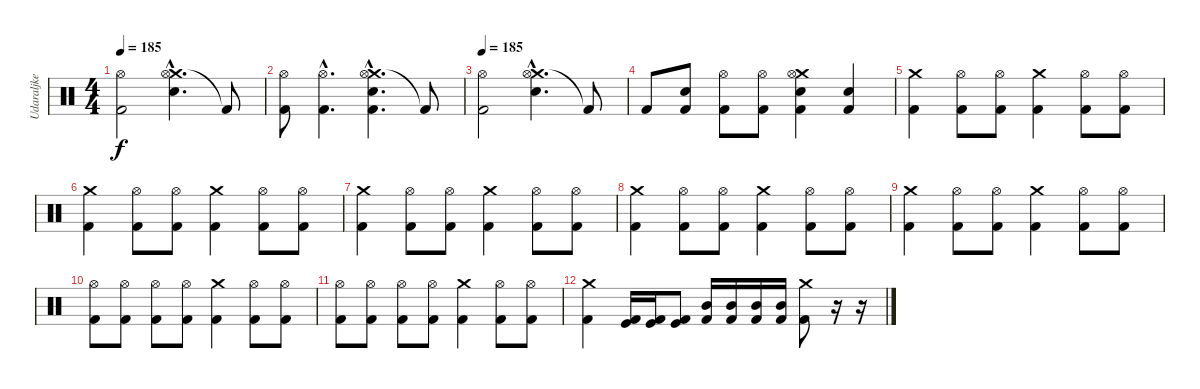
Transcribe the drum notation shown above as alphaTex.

\track ("Udaraljke" "Udaraljke") {instrument percussion}
\staff {score}
\articulation defaults
\ts (4 4)
\tempo 185
\clef neutral
\ks c
("Hi-Hat (open)" "Kick (hit) 2").2{dy f} ("Crash medium (hit)"{hac} "Electric Snare (hit)"{hac} "Hi-Hat (open)"{hac}).4{d} "Kick (hit) 2"{t}.8 |
("Hi-Hat (open)" "Kick (hit) 2").8 ("Hi-Hat (open)"{hac} "Kick (hit) 2"{hac}).4{d} ("Crash medium (hit)"{hac} "Electric Snare (hit)"{hac} "Kick (hit) 2"{hac} "Hi-Hat (open)"{hac}).4{d} "Kick (hit) 2"{t}.8 |
\tempo 185
("Hi-Hat (open)" "Kick (hit) 2").2 ("Crash medium (hit)"{hac} "Electric Snare (hit)"{hac} "Hi-Hat (open)"{hac}).4{d} "Kick (hit) 2"{t}.8 |
"Kick (hit) 2".8 ("Electric Snare (hit)" "Kick (hit) 2").8 ("Hi-Hat (open)" "Kick (hit) 2").8 ("Hi-Hat (open)" "Kick (hit) 2").8 ("Crash medium (hit)" "Electric Snare (hit)" "Kick (hit) 2" "Hi-Hat (open)").4 ("Electric Snare (hit)" "Kick (hit) 2").4 |
("Kick (hit) 2" "Crash medium (hit)").4 ("Kick (hit) 2" "Hi-Hat (open)").8 ("Kick (hit) 2" "Hi-Hat (open)").8 ("Kick (hit) 2" "Crash medium (hit)").4 ("Kick (hit) 2" "Hi-Hat (open)").8 ("Kick (hit) 2" "Hi-Hat (open)").8 |
("Kick (hit) 2" "Crash medium (hit)").4 ("Kick (hit) 2" "Hi-Hat (open)").8 ("Kick (hit) 2" "Hi-Hat (open)").8 ("Kick (hit) 2" "Crash medium (hit)").4 ("Kick (hit) 2" "Hi-Hat (open)").8 ("Kick (hit) 2" "Hi-Hat (open)").8 |
("Kick (hit) 2" "Crash medium (hit)").4 ("Kick (hit) 2" "Hi-Hat (open)").8 ("Kick (hit) 2" "Hi-Hat (open)").8 ("Kick (hit) 2" "Crash medium (hit)").4 ("Kick (hit) 2" "Hi-Hat (open)").8 ("Kick (hit) 2" "Hi-Hat (open)").8 |
("Kick (hit) 2" "Crash medium (hit)").4 ("Kick (hit) 2" "Hi-Hat (open)").8 ("Kick (hit) 2" "Hi-Hat (open)").8 ("Kick (hit) 2" "Crash medium (hit)").4 ("Kick (hit) 2" "Hi-Hat (open)").8 ("Kick (hit) 2" "Hi-Hat (open)").8 |
("Kick (hit) 2" "Crash medium (hit)").4 ("Kick (hit) 2" "Hi-Hat (open)").8 ("Kick (hit) 2" "Hi-Hat (open)").8 ("Kick (hit) 2" "Crash medium (hit)").4 ("Kick (hit) 2" "Hi-Hat (open)").8 ("Kick (hit) 2" "Hi-Hat (open)").8 |
("Kick (hit) 2" "Hi-Hat (open)").8 ("Kick (hit) 2" "Hi-Hat (open)").8 ("Kick (hit) 2" "Hi-Hat (open)").8 ("Kick (hit) 2" "Hi-Hat (open)").8 ("Kick (hit) 2" "Crash medium (hit)").4 ("Kick (hit) 2" "Hi-Hat (open)").8 ("Kick (hit) 2" "Hi-Hat (open)").8 |
("Kick (hit) 2" "Hi-Hat (open)").8 ("Kick (hit) 2" "Hi-Hat (open)").8 ("Kick (hit) 2" "Hi-Hat (open)").8 ("Kick (hit) 2" "Hi-Hat (open)").8 ("Kick (hit) 2" "Crash medium (hit)").4 ("Kick (hit) 2" "Hi-Hat (open)").8 ("Kick (hit) 2" "Hi-Hat (open)").8 |
("Kick (hit) 2" "Crash medium (hit)").4 ("Kick (hit) 2" "Kick (hit)").16 ("Kick (hit) 2" "Kick (hit)").16 ("Kick (hit) 2" "Kick (hit)").8 ("Kick (hit) 2" "Mid Tom (hit)").16 ("Kick (hit) 2" "Mid Tom (hit)").16 ("Kick (hit) 2" "Mid Tom (hit)").16 ("Kick (hit) 2" "Mid Tom (hit)").16 ("Kick (hit) 2" "Crash medium (hit)").8 r.16 r.16
